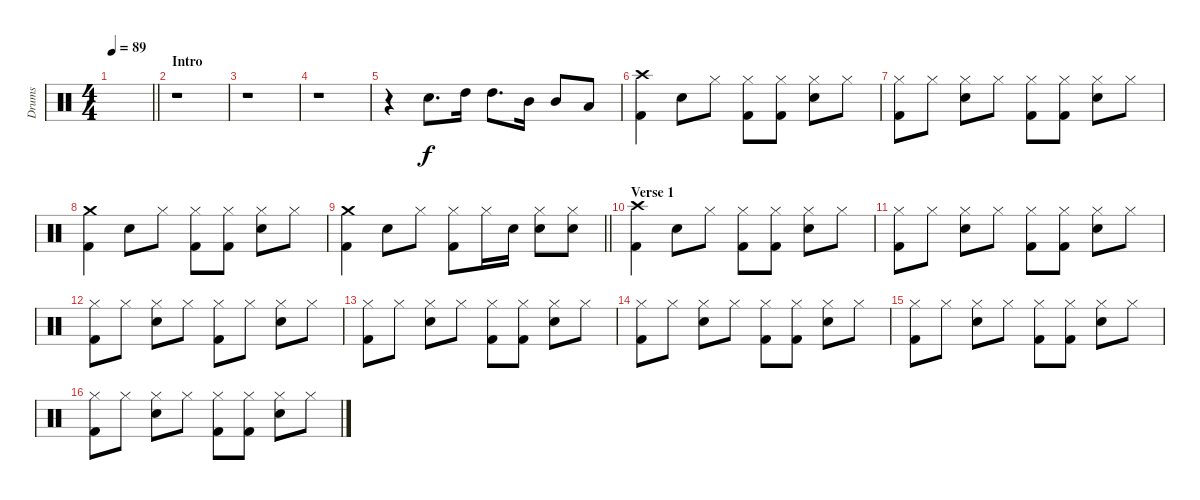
\track ("Drums" "Drums") {instrument percussion}
\staff {score}
\articulation defaults
\ts (4 4)
\tempo 89
\clef neutral
\barLineRight lightlight
\ks c
|
\section ("" "Intro")
r.1 |
r.1 |
r.1 |
r.4 "Snare (hit) 2".8{d} "High Tom (hit)".16 "High Tom (hit)".8{d} "Mid Tom (hit)".16 "Mid Tom (hit)".8 "Low Tom (hit)".8 |
("Kick (hit) 2" "Crash high (hit)").4 "Snare (hit) 2".8 "Hi-Hat (closed)".8 ("Kick (hit) 2" "Hi-Hat (closed)").8 ("Kick (hit) 2" "Hi-Hat (closed)").8 ("Snare (hit) 2" "Hi-Hat (closed)").8 "Hi-Hat (closed)".8 |
("Kick (hit) 2" "Hi-Hat (closed)").8 "Hi-Hat (closed)".8 ("Snare (hit) 2" "Hi-Hat (closed)").8 "Hi-Hat (closed)".8 ("Kick (hit) 2" "Hi-Hat (closed)").8 ("Kick (hit) 2" "Hi-Hat (closed)").8 ("Snare (hit) 2" "Hi-Hat (closed)").8 "Hi-Hat (closed)".8 |
("Kick (hit) 2" "Crash medium (hit)").4 "Snare (hit) 2".8 "Hi-Hat (closed)".8 ("Kick (hit) 2" "Hi-Hat (closed)").8 ("Kick (hit) 2" "Hi-Hat (closed)").8 ("Snare (hit) 2" "Hi-Hat (closed)").8 "Hi-Hat (closed)".8 |
\barLineRight lightlight
("Kick (hit) 2" "Crash medium (hit)").4 "Snare (hit) 2".8 "Hi-Hat (closed)".8 ("Kick (hit) 2" "Hi-Hat (closed)").8 "Hi-Hat (closed)".16 "Snare (hit) 2".16 ("Snare (hit) 2" "Hi-Hat (closed)").8 ("Snare (hit) 2" "Hi-Hat (closed)").8 |
\section ("" "Verse 1")
("Kick (hit) 2" "Crash high (hit)").4 "Snare (hit) 2".8 "Hi-Hat (closed)".8 ("Kick (hit) 2" "Hi-Hat (closed)").8 ("Kick (hit) 2" "Hi-Hat (closed)").8 ("Snare (hit) 2" "Hi-Hat (closed)").8 "Hi-Hat (closed)".8 |
("Kick (hit) 2" "Hi-Hat (closed)").8 "Hi-Hat (closed)".8 ("Snare (hit) 2" "Hi-Hat (closed)").8 "Hi-Hat (closed)".8 ("Kick (hit) 2" "Hi-Hat (closed)").8 ("Kick (hit) 2" "Hi-Hat (closed)").8 ("Snare (hit) 2" "Hi-Hat (closed)").8 "Hi-Hat (closed)".8 |
("Kick (hit) 2" "Hi-Hat (closed)").8 "Hi-Hat (closed)".8 ("Snare (hit) 2" "Hi-Hat (closed)").8 "Hi-Hat (closed)".8 ("Kick (hit) 2" "Hi-Hat (closed)").8 "Hi-Hat (closed)".8 ("Snare (hit) 2" "Hi-Hat (closed)").8 "Hi-Hat (closed)".8 |
("Kick (hit) 2" "Hi-Hat (closed)").8 "Hi-Hat (closed)".8 ("Snare (hit) 2" "Hi-Hat (closed)").8 "Hi-Hat (closed)".8 ("Kick (hit) 2" "Hi-Hat (closed)").8 ("Kick (hit) 2" "Hi-Hat (closed)").8 ("Snare (hit) 2" "Hi-Hat (closed)").8 "Hi-Hat (closed)".8 |
("Kick (hit) 2" "Hi-Hat (closed)").8 "Hi-Hat (closed)".8 ("Snare (hit) 2" "Hi-Hat (closed)").8 "Hi-Hat (closed)".8 ("Kick (hit) 2" "Hi-Hat (closed)").8 ("Kick (hit) 2" "Hi-Hat (closed)").8 ("Snare (hit) 2" "Hi-Hat (closed)").8 "Hi-Hat (closed)".8 |
("Kick (hit) 2" "Hi-Hat (closed)").8 "Hi-Hat (closed)".8 ("Snare (hit) 2" "Hi-Hat (closed)").8 "Hi-Hat (closed)".8 ("Kick (hit) 2" "Hi-Hat (closed)").8 ("Kick (hit) 2" "Hi-Hat (closed)").8 ("Snare (hit) 2" "Hi-Hat (closed)").8 "Hi-Hat (closed)".8 |
("Kick (hit) 2" "Hi-Hat (closed)").8 "Hi-Hat (closed)".8 ("Snare (hit) 2" "Hi-Hat (closed)").8 "Hi-Hat (closed)".8 ("Kick (hit) 2" "Hi-Hat (closed)").8 ("Kick (hit) 2" "Hi-Hat (closed)").8 ("Snare (hit) 2" "Hi-Hat (closed)").8 "Hi-Hat (closed)".8
